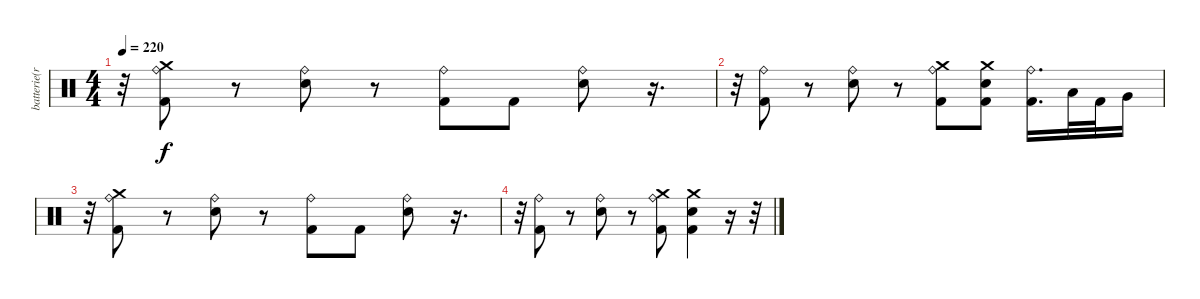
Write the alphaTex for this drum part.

\track ("batterie(richie)" "batterie(r") {instrument percussion}
\staff {score}
\articulation defaults
\ts (4 4)
\tempo 220
\clef neutral
\ks c
r.32{dy f} ("Crash medium (hit)" "Ride (bell)" "Kick (hit) 2").8 r.8 ("Ride (bell)" "Electric Snare (hit)").8 r.8 ("Ride (bell)" "Kick (hit) 2").8 "Kick (hit) 2".8 ("Ride (bell)" "Electric Snare (hit)").8 r.16{d} |
r.32 ("Ride (bell)" "Kick (hit) 2").8 r.8 ("Ride (bell)" "Electric Snare (hit)").8 r.8 ("Crash medium (hit)" "Ride (bell)" "Kick (hit) 2").8 ("Electric Snare (hit)" "Crash medium (hit)" "Kick (hit) 2").8 ("Kick (hit) 2" "Ride (bell)").16{d} "Low Tom (hit)".32 "Kick (hit) 2".32 "Very Low Tom (hit)".16 |
r.32 ("Crash medium (hit)" "Ride (bell)" "Kick (hit) 2").8 r.8 ("Ride (bell)" "Electric Snare (hit)").8 r.8 ("Ride (bell)" "Kick (hit) 2").8 "Kick (hit) 2".8 ("Ride (bell)" "Electric Snare (hit)").8 r.16{d} |
r.32 ("Ride (bell)" "Kick (hit) 2").8 r.8 ("Ride (bell)" "Electric Snare (hit)").8 r.8 ("Crash medium (hit)" "Ride (bell)" "Kick (hit) 2").8 ("Crash medium (hit)" "Electric Snare (hit)" "Kick (hit) 2").4 r.16 r.32
